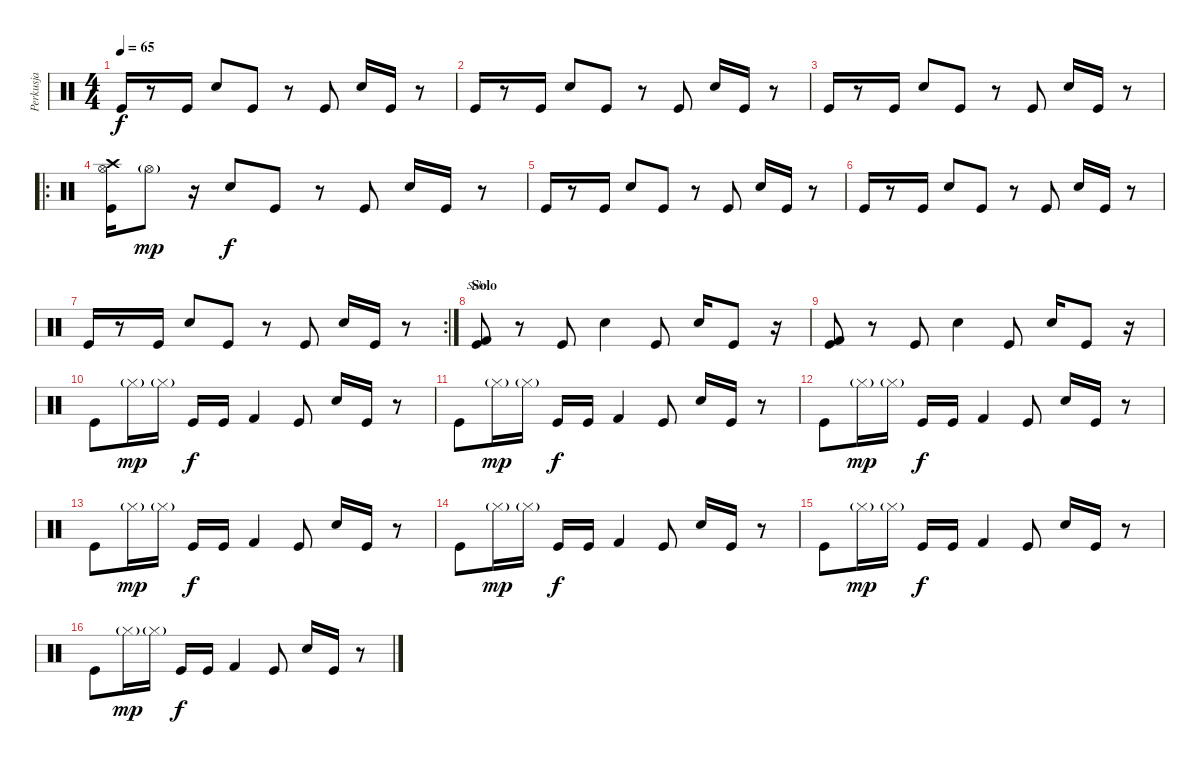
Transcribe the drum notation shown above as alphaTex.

\track ("Perkusja" "Perkusja") {instrument percussion}
\staff {score}
\articulation defaults
\chord ("Solo") {firstfret 13}
\ts (4 4)
\tempo 65
\clef neutral
\ks c "Kick (hit)".16{dy f}
r.8 "Kick (hit)".16 "Snare (hit) 2".8 "Kick (hit)".8 r.8 "Kick (hit)".8 "Snare (hit) 2".16 "Kick (hit)".16 r.8 |
"Kick (hit)".16 r.8 "Kick (hit)".16 "Snare (hit) 2".8 "Kick (hit)".8 r.8 "Kick (hit)".8 "Snare (hit) 2".16 "Kick (hit)".16 r.8 |
"Kick (hit)".16 r.8 "Kick (hit)".16 "Snare (hit) 2".8 "Kick (hit)".8 r.8 "Kick (hit)".8 "Snare (hit) 2".16 "Kick (hit)".16 r.8 |
\ro
("Kick (hit)" "Hi-Hat (open)" "Crash high (hit)").16 "Hi-Hat (open)"{g}.8{dy mp} r.16 "Snare (hit) 2".8{dy f} "Kick (hit)".8 r.8 "Kick (hit)".8 "Snare (hit) 2".16 "Kick (hit)".16 r.8 |
"Kick (hit)".16 r.8 "Kick (hit)".16 "Snare (hit) 2".8 "Kick (hit)".8 r.8 "Kick (hit)".8 "Snare (hit) 2".16 "Kick (hit)".16 r.8 |
"Kick (hit)".16 r.8 "Kick (hit)".16 "Snare (hit) 2".8 "Kick (hit)".8 r.8 "Kick (hit)".8 "Snare (hit) 2".16 "Kick (hit)".16 r.8 |
\rc 2 "Kick (hit)".16
r.8 "Kick (hit)".16 "Snare (hit) 2".8 "Kick (hit)".8 r.8 "Kick (hit)".8 "Snare (hit) 2".16 "Kick (hit)".16 r.8 |
\section ("" "Solo")
("Kick (hit)" "Kick (hit) 2").8{ch "Solo" volume 16} r.8 "Kick (hit)".8 "Snare (hit) 2".4 "Kick (hit)".8 "Snare (hit) 2".16 "Kick (hit)".8 r.16 |
("Kick (hit)" "Kick (hit) 2").8 r.8 "Kick (hit)".8 "Snare (hit) 2".4 "Kick (hit)".8 "Snare (hit) 2".16 "Kick (hit)".8 r.16 |
"Kick (hit)".8 "Hi-Hat (closed)"{g}.16{dy mp} "Hi-Hat (closed)"{g}.16 "Kick (hit)".16{dy f} "Kick (hit)".16 "Kick (hit) 2".4 "Kick (hit)".8 "Snare (hit) 2".16 "Kick (hit)".16 r.8 |
"Kick (hit)".8 "Hi-Hat (closed)"{g}.16{dy mp} "Hi-Hat (closed)"{g}.16 "Kick (hit)".16{dy f} "Kick (hit)".16 "Kick (hit) 2".4 "Kick (hit)".8 "Snare (hit) 2".16 "Kick (hit)".16 r.8 |
"Kick (hit)".8 "Hi-Hat (closed)"{g}.16{dy mp} "Hi-Hat (closed)"{g}.16 "Kick (hit)".16{dy f} "Kick (hit)".16 "Kick (hit) 2".4 "Kick (hit)".8 "Snare (hit) 2".16 "Kick (hit)".16 r.8 |
"Kick (hit)".8 "Hi-Hat (closed)"{g}.16{dy mp} "Hi-Hat (closed)"{g}.16 "Kick (hit)".16{dy f} "Kick (hit)".16 "Kick (hit) 2".4 "Kick (hit)".8 "Snare (hit) 2".16 "Kick (hit)".16 r.8 |
"Kick (hit)".8 "Hi-Hat (closed)"{g}.16{dy mp} "Hi-Hat (closed)"{g}.16 "Kick (hit)".16{dy f} "Kick (hit)".16 "Kick (hit) 2".4 "Kick (hit)".8 "Snare (hit) 2".16 "Kick (hit)".16 r.8 |
"Kick (hit)".8 "Hi-Hat (closed)"{g}.16{dy mp} "Hi-Hat (closed)"{g}.16 "Kick (hit)".16{dy f} "Kick (hit)".16 "Kick (hit) 2".4 "Kick (hit)".8 "Snare (hit) 2".16 "Kick (hit)".16 r.8 |
"Kick (hit)".8 "Hi-Hat (closed)"{g}.16{dy mp} "Hi-Hat (closed)"{g}.16 "Kick (hit)".16{dy f} "Kick (hit)".16 "Kick (hit) 2".4 "Kick (hit)".8 "Snare (hit) 2".16 "Kick (hit)".16 r.8
